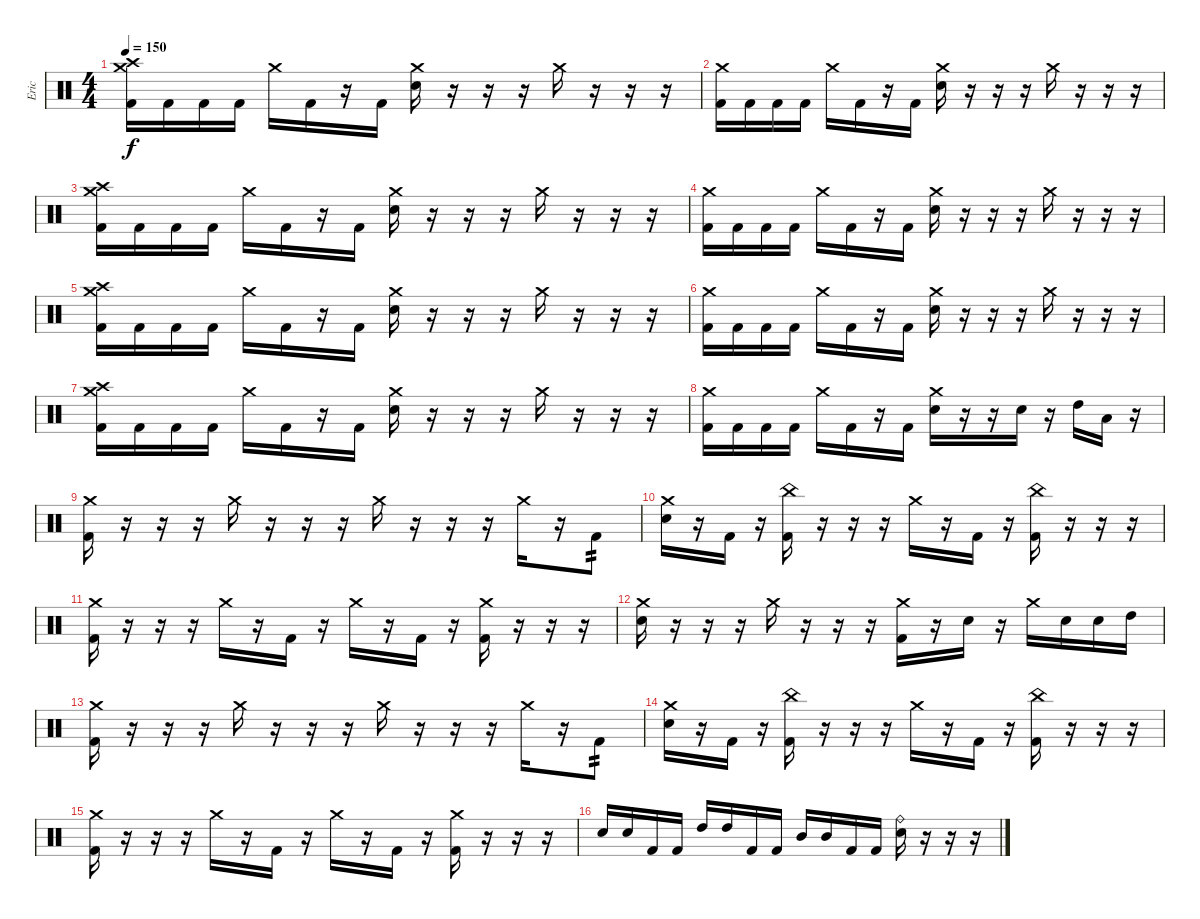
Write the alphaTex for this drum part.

\track ("Eric" "Eric") {instrument percussion}
\staff {score}
\articulation defaults
\ts (4 4)
\tempo 150
\clef neutral
\ks c
("Crash medium (hit)" "Crash high (hit)" "Kick (hit) 2").16{dy f} "Kick (hit) 2".16 "Kick (hit) 2".16 "Kick (hit) 2".16 "Crash medium (hit)".16 "Kick (hit) 2".16 r.16 "Kick (hit) 2".16 ("Crash medium (hit)" "Electric Snare (hit)").16 r.16 r.16 r.16 "Crash medium (hit)".16 r.16 r.16 r.16 |
("Crash medium (hit)" "Kick (hit) 2").16 "Kick (hit) 2".16 "Kick (hit) 2".16 "Kick (hit) 2".16 "Crash medium (hit)".16 "Kick (hit) 2".16 r.16 "Kick (hit) 2".16 ("Crash medium (hit)" "Electric Snare (hit)").16 r.16 r.16 r.16 "Crash medium (hit)".16 r.16 r.16 r.16 |
("Crash medium (hit)" "Crash high (hit)" "Kick (hit) 2").16 "Kick (hit) 2".16 "Kick (hit) 2".16 "Kick (hit) 2".16 "Crash medium (hit)".16 "Kick (hit) 2".16 r.16 "Kick (hit) 2".16 ("Crash medium (hit)" "Electric Snare (hit)").16 r.16 r.16 r.16 "Crash medium (hit)".16 r.16 r.16 r.16 |
("Crash medium (hit)" "Kick (hit) 2").16 "Kick (hit) 2".16 "Kick (hit) 2".16 "Kick (hit) 2".16 "Crash medium (hit)".16 "Kick (hit) 2".16 r.16 "Kick (hit) 2".16 ("Crash medium (hit)" "Electric Snare (hit)").16 r.16 r.16 r.16 "Crash medium (hit)".16 r.16 r.16 r.16 |
("Crash medium (hit)" "Crash high (hit)" "Kick (hit) 2").16 "Kick (hit) 2".16 "Kick (hit) 2".16 "Kick (hit) 2".16 "Crash medium (hit)".16 "Kick (hit) 2".16 r.16 "Kick (hit) 2".16 ("Crash medium (hit)" "Electric Snare (hit)").16 r.16 r.16 r.16 "Crash medium (hit)".16 r.16 r.16 r.16 |
("Crash medium (hit)" "Kick (hit) 2").16 "Kick (hit) 2".16 "Kick (hit) 2".16 "Kick (hit) 2".16 "Crash medium (hit)".16 "Kick (hit) 2".16 r.16 "Kick (hit) 2".16 ("Crash medium (hit)" "Electric Snare (hit)").16 r.16 r.16 r.16 "Crash medium (hit)".16 r.16 r.16 r.16 |
("Crash medium (hit)" "Crash high (hit)" "Kick (hit) 2").16 "Kick (hit) 2".16 "Kick (hit) 2".16 "Kick (hit) 2".16 "Crash medium (hit)".16 "Kick (hit) 2".16 r.16 "Kick (hit) 2".16 ("Crash medium (hit)" "Electric Snare (hit)").16 r.16 r.16 r.16 "Crash medium (hit)".16 r.16 r.16 r.16 |
("Crash medium (hit)" "Kick (hit) 2").16 "Kick (hit) 2".16 "Kick (hit) 2".16 "Kick (hit) 2".16 "Crash medium (hit)".16 "Kick (hit) 2".16 r.16 "Kick (hit) 2".16 ("Crash medium (hit)" "Electric Snare (hit)").16 r.16 r.16 "Electric Snare (hit)".16 r.16 "High Tom (hit)".16 "Low Tom (hit)".16 r.16 |
("Crash medium (hit)" "Kick (hit) 2").16 r.16 r.16 r.16 "Crash medium (hit)".16 r.16 r.16 r.16 "Crash medium (hit)".16 r.16 r.16 r.16 "Crash medium (hit)".16 r.16 "Kick (hit) 2".8{tp 2} |
("Crash medium (hit)" "Electric Snare (hit)").16 r.16 "Kick (hit) 2".16 r.16 ("China (hit)" "Kick (hit) 2").16 r.16 r.16 r.16 "Crash medium (hit)".16 r.16 "Kick (hit) 2".16 r.16 ("China (hit)" "Kick (hit) 2").16 r.16 r.16 r.16 |
("Crash medium (hit)" "Kick (hit) 2").16 r.16 r.16 r.16 "Crash medium (hit)".16 r.16 "Kick (hit) 2".16 r.16 "Crash medium (hit)".16 r.16 "Kick (hit) 2".16 r.16 ("Crash medium (hit)" "Kick (hit) 2").16 r.16 r.16 r.16 |
("Crash medium (hit)" "Electric Snare (hit)").16 r.16 r.16 r.16 "Crash medium (hit)".16 r.16 r.16 r.16 ("Crash medium (hit)" "Kick (hit) 2").16 r.16 "Electric Snare (hit)".16 r.16 "Crash medium (hit)".16 "Electric Snare (hit)".16 "Electric Snare (hit)".16 "High Tom (hit)".16 |
("Crash medium (hit)" "Kick (hit) 2").16 r.16 r.16 r.16 "Crash medium (hit)".16 r.16 r.16 r.16 "Crash medium (hit)".16 r.16 r.16 r.16 "Crash medium (hit)".16 r.16 "Kick (hit) 2".8{tp 2} |
("Crash medium (hit)" "Electric Snare (hit)").16 r.16 "Kick (hit) 2".16 r.16 ("China (hit)" "Kick (hit) 2").16 r.16 r.16 r.16 "Crash medium (hit)".16 r.16 "Kick (hit) 2".16 r.16 ("China (hit)" "Kick (hit) 2").16 r.16 r.16 r.16 |
("Crash medium (hit)" "Kick (hit) 2").16 r.16 r.16 r.16 "Crash medium (hit)".16 r.16 "Kick (hit) 2".16 r.16 "Crash medium (hit)".16 r.16 "Kick (hit) 2".16 r.16 ("Crash medium (hit)" "Kick (hit) 2").16 r.16 r.16 r.16 |
"Electric Snare (hit)".16 "Electric Snare (hit)".16 "Kick (hit) 2".16 "Kick (hit) 2".16 "High Tom (hit)".16 "High Tom (hit)".16 "Kick (hit) 2".16 "Kick (hit) 2".16 "Mid Tom (hit)".16 "Mid Tom (hit)".16 "Kick (hit) 2".16 "Kick (hit) 2".16 ("Ride (bell)" "Electric Snare (hit)").16 r.16 r.16 r.16
